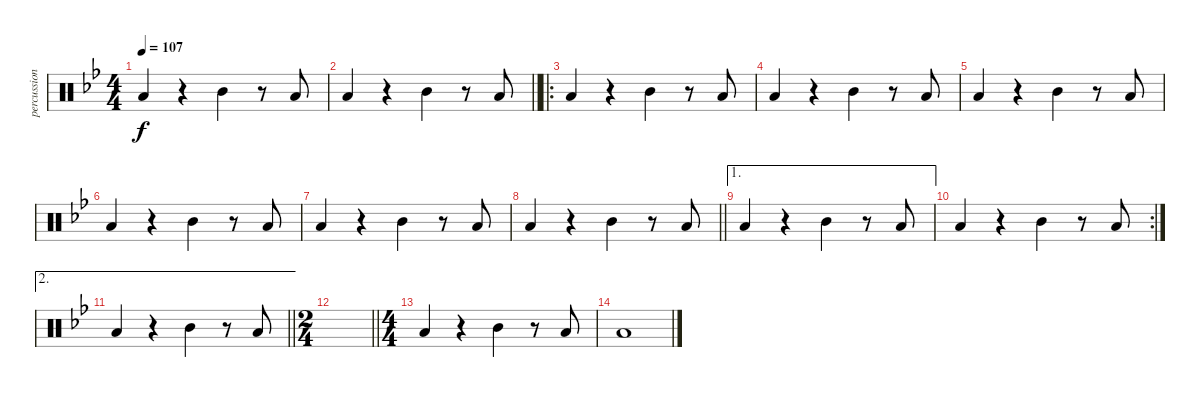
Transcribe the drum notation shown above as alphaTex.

\track ("percussions" "percussion") {instrument percussion}
\staff {score}
\articulation defaults
\ts (4 4)
\tempo 107
\clef neutral
\ks bb "Low Floor Tom (hit)".4{dy f}
r.4 "Mid Tom (hit)".4 r.8 "Low Floor Tom (hit)".8 |
\barLineRight lightlight "Low Floor Tom (hit)".4
r.4 "Mid Tom (hit)".4 r.8 "Low Floor Tom (hit)".8 |
\ro "Low Floor Tom (hit)".4
r.4 "Mid Tom (hit)".4 r.8 "Low Floor Tom (hit)".8 |
"Low Floor Tom (hit)".4 r.4 "Mid Tom (hit)".4 r.8 "Low Floor Tom (hit)".8 |
"Low Floor Tom (hit)".4 r.4 "Mid Tom (hit)".4 r.8 "Low Floor Tom (hit)".8 |
"Low Floor Tom (hit)".4 r.4 "Mid Tom (hit)".4 r.8 "Low Floor Tom (hit)".8 |
"Low Floor Tom (hit)".4 r.4 "Mid Tom (hit)".4 r.8 "Low Floor Tom (hit)".8 |
\barLineRight lightlight "Low Floor Tom (hit)".4
r.4 "Mid Tom (hit)".4 r.8 "Low Floor Tom (hit)".8 |
\ae 1 "Low Floor Tom (hit)".4
r.4 "Mid Tom (hit)".4 r.8 "Low Floor Tom (hit)".8 |
\rc 2 "Low Floor Tom (hit)".4
r.4 "Mid Tom (hit)".4 r.8 "Low Floor Tom (hit)".8 |
\ae 2
\barLineRight lightlight "Low Floor Tom (hit)".4
r.4 "Mid Tom (hit)".4 r.8 "Low Floor Tom (hit)".8 |
\ts (2 4)
\barLineRight lightlight
|
\ts (4 4)
"Low Floor Tom (hit)".4 r.4 "Mid Tom (hit)".4 r.8 "Low Floor Tom (hit)".8 |
"Low Floor Tom (hit)".1
